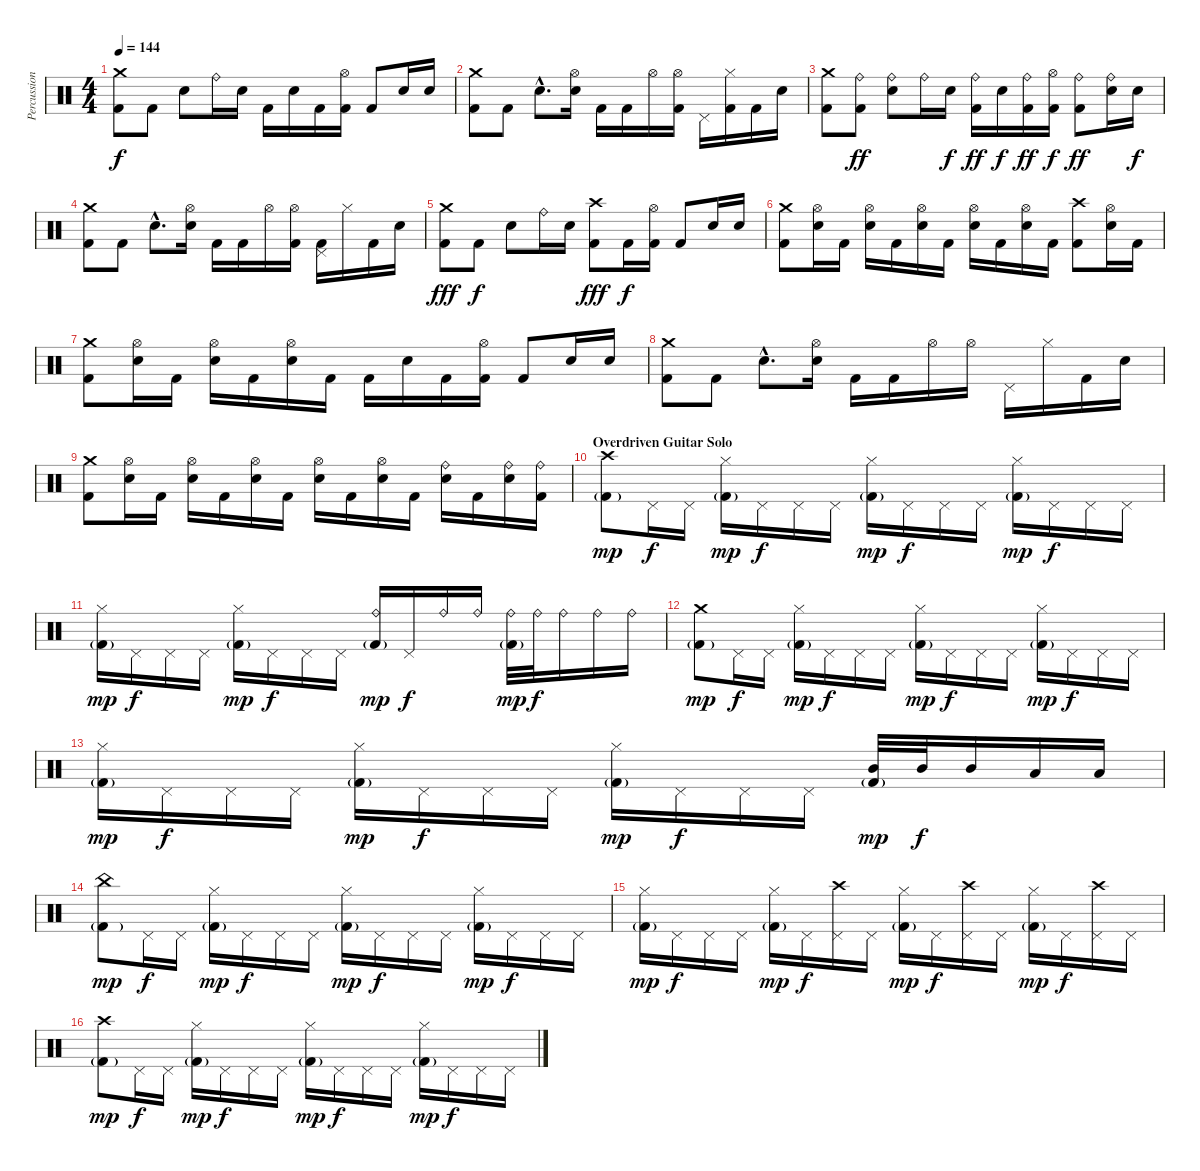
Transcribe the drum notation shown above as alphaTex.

\track ("Percussion" "Percussion") {instrument percussion}
\staff {score}
\articulation defaults
\ts (4 4)
\tempo 144
\clef neutral
\ks c
("Crash medium (hit)" "Kick (hit) 2").8{dy f} "Kick (hit) 2".8 "Electric Snare (hit)".8 "Ride (bell)".16 "Electric Snare (hit)".16 "Kick (hit) 2".16 "Electric Snare (hit)".16 "Kick (hit) 2".16 ("Hi-Hat (open)" "Kick (hit) 2").16 "Kick (hit) 2".8 "Electric Snare (hit)".16 "Electric Snare (hit)".16 |
("Crash medium (hit)" "Kick (hit) 2").8 "Kick (hit) 2".8 "Electric Snare (hit)"{hac}.8{d} ("Hi-Hat (open)" "Electric Snare (hit)").16 "Kick (hit) 2".16 "Kick (hit) 2".16 "Hi-Hat (open)".16 ("Hi-Hat (open)" "Kick (hit) 2").16 "Pedal Hi-Hat (hit)".16 ("Hi-Hat (closed)" "Kick (hit) 2").16 "Kick (hit) 2".16 "Electric Snare (hit)".16 |
("Crash medium (hit)" "Kick (hit) 2").8 ("Ride (bell)" "Kick (hit) 2").8{dy ff} ("Ride (bell)" "Electric Snare (hit)").8 "Ride (bell)".16 "Electric Snare (hit)".16{dy f} ("Ride (bell)" "Kick (hit) 2").16{dy ff} "Electric Snare (hit)".16{dy f} ("Ride (bell)" "Kick (hit) 2").16{dy ff} ("Hi-Hat (open)" "Kick (hit) 2").16{dy f} ("Ride (bell)" "Kick (hit) 2").8{dy ff} ("Ride (bell)" "Electric Snare (hit)").16 "Electric Snare (hit)".16{dy f} |
("Crash medium (hit)" "Kick (hit) 2").8 "Kick (hit) 2".8 "Electric Snare (hit)"{hac}.8{d} ("Hi-Hat (open)" "Electric Snare (hit)").16 "Kick (hit) 2".16 "Kick (hit) 2".16 "Hi-Hat (open)".16 ("Hi-Hat (open)" "Kick (hit) 2").16 ("Pedal Hi-Hat (hit)" "Kick (hit) 2").16 "Hi-Hat (closed)".16 "Kick (hit) 2".16 "Electric Snare (hit)".16 |
("Crash medium (hit)" "Kick (hit) 2").8{dy fff} "Kick (hit) 2".8{dy f} "Electric Snare (hit)".8 "Ride (bell)".16 "Electric Snare (hit)".16 ("Crash high (hit)" "Kick (hit) 2").8{dy fff} "Kick (hit) 2".16{dy f} ("Hi-Hat (open)" "Kick (hit) 2").16 "Kick (hit) 2".8 "Electric Snare (hit)".16 "Electric Snare (hit)".16 |
("Crash medium (hit)" "Kick (hit) 2").8 ("Hi-Hat (open)" "Electric Snare (hit)").16 "Kick (hit) 2".16 ("Hi-Hat (open)" "Electric Snare (hit)").16 "Kick (hit) 2".16 ("Hi-Hat (open)" "Electric Snare (hit)").16 "Kick (hit) 2".16 ("Hi-Hat (open)" "Electric Snare (hit)").16 "Kick (hit) 2".16 ("Hi-Hat (open)" "Electric Snare (hit)").16 "Kick (hit) 2".16 ("Crash high (hit)" "Kick (hit) 2").8 ("Hi-Hat (open)" "Electric Snare (hit)").16 "Kick (hit) 2".16 |
("Crash medium (hit)" "Kick (hit) 2").8 ("Hi-Hat (open)" "Electric Snare (hit)").16 "Kick (hit) 2".16 ("Hi-Hat (open)" "Electric Snare (hit)").16 "Kick (hit) 2".16 ("Hi-Hat (open)" "Electric Snare (hit)").16 "Kick (hit) 2".16 "Kick (hit) 2".16 "Electric Snare (hit)".16 "Kick (hit) 2".16 ("Hi-Hat (open)" "Kick (hit) 2").16 "Kick (hit) 2".8 "Electric Snare (hit)".16 "Electric Snare (hit)".16 |
("Crash medium (hit)" "Kick (hit) 2").8 "Kick (hit) 2".8 "Electric Snare (hit)"{hac}.8{d} ("Hi-Hat (open)" "Electric Snare (hit)").16 "Kick (hit) 2".16 "Kick (hit) 2".16 "Hi-Hat (open)".16 "Hi-Hat (open)".16 "Pedal Hi-Hat (hit)".16 "Hi-Hat (closed)".16 "Kick (hit) 2".16 "Electric Snare (hit)".16 |
("Crash medium (hit)" "Kick (hit) 2").8 ("Hi-Hat (open)" "Electric Snare (hit)").16 "Kick (hit) 2".16 ("Hi-Hat (open)" "Electric Snare (hit)").16 "Kick (hit) 2".16 ("Hi-Hat (open)" "Electric Snare (hit)").16 "Kick (hit) 2".16 ("Hi-Hat (open)" "Electric Snare (hit)").16 "Kick (hit) 2".16 ("Hi-Hat (open)" "Electric Snare (hit)").16 "Kick (hit) 2".16 ("Ride (bell)" "Electric Snare (hit)").16 "Kick (hit) 2".16 ("Ride (bell)" "Electric Snare (hit)").16 ("Ride (bell)" "Kick (hit) 2").16 |
\section ("" "Overdriven Guitar Solo")
("Crash high (hit)" "Kick (hit) 2"{g}).8{dy mp} "Pedal Hi-Hat (hit)".16{dy f} "Pedal Hi-Hat (hit)".16 ("Hi-Hat (closed)" "Kick (hit) 2"{g}).16{dy mp} "Pedal Hi-Hat (hit)".16{dy f} "Pedal Hi-Hat (hit)".16 "Pedal Hi-Hat (hit)".16 ("Hi-Hat (closed)" "Kick (hit) 2"{g}).16{dy mp} "Pedal Hi-Hat (hit)".16{dy f} "Pedal Hi-Hat (hit)".16 "Pedal Hi-Hat (hit)".16 ("Hi-Hat (closed)" "Kick (hit) 2"{g}).16{dy mp} "Pedal Hi-Hat (hit)".16{dy f} "Pedal Hi-Hat (hit)".16 "Pedal Hi-Hat (hit)".16 |
("Hi-Hat (closed)" "Kick (hit) 2"{g}).16{dy mp} "Pedal Hi-Hat (hit)".16{dy f} "Pedal Hi-Hat (hit)".16 "Pedal Hi-Hat (hit)".16 ("Hi-Hat (closed)" "Kick (hit) 2"{g}).16{dy mp} "Pedal Hi-Hat (hit)".16{dy f} "Pedal Hi-Hat (hit)".16 "Pedal Hi-Hat (hit)".16 ("Ride (bell)" "Kick (hit) 2"{g}).16{dy mp} "Pedal Hi-Hat (hit)".16{dy f} "Ride (bell)".16 "Ride (bell)".16 ("Ride (bell)" "Kick (hit) 2"{g}).32{dy mp} "Ride (bell)".32{dy f} "Ride (bell)".16 "Ride (bell)".16 "Ride (bell)".16 |
("Crash medium (hit)" "Kick (hit) 2"{g}).8{dy mp} "Pedal Hi-Hat (hit)".16{dy f} "Pedal Hi-Hat (hit)".16 ("Hi-Hat (closed)" "Kick (hit) 2"{g}).16{dy mp} "Pedal Hi-Hat (hit)".16{dy f} "Pedal Hi-Hat (hit)".16 "Pedal Hi-Hat (hit)".16 ("Hi-Hat (closed)" "Kick (hit) 2"{g}).16{dy mp} "Pedal Hi-Hat (hit)".16{dy f} "Pedal Hi-Hat (hit)".16 "Pedal Hi-Hat (hit)".16 ("Hi-Hat (closed)" "Kick (hit) 2"{g}).16{dy mp} "Pedal Hi-Hat (hit)".16{dy f} "Pedal Hi-Hat (hit)".16 "Pedal Hi-Hat (hit)".16 |
("Hi-Hat (closed)" "Kick (hit) 2"{g}).16{dy mp} "Pedal Hi-Hat (hit)".16{dy f} "Pedal Hi-Hat (hit)".16 "Pedal Hi-Hat (hit)".16 ("Hi-Hat (closed)" "Kick (hit) 2"{g}).16{dy mp} "Pedal Hi-Hat (hit)".16{dy f} "Pedal Hi-Hat (hit)".16 "Pedal Hi-Hat (hit)".16 ("Hi-Hat (closed)" "Kick (hit) 2"{g}).16{dy mp} "Pedal Hi-Hat (hit)".16{dy f} "Pedal Hi-Hat (hit)".16 "Pedal Hi-Hat (hit)".16 ("Mid Tom (hit)" "Kick (hit) 2"{g}).32{dy mp} "Mid Tom (hit)".32{dy f} "Mid Tom (hit)".16 "Low Tom (hit)".16 "Low Tom (hit)".16 |
("China (hit)" "Kick (hit) 2"{g}).8{dy mp} "Pedal Hi-Hat (hit)".16{dy f} "Pedal Hi-Hat (hit)".16 ("Hi-Hat (closed)" "Kick (hit) 2"{g}).16{dy mp} "Pedal Hi-Hat (hit)".16{dy f} "Pedal Hi-Hat (hit)".16 "Pedal Hi-Hat (hit)".16 ("Hi-Hat (closed)" "Kick (hit) 2"{g}).16{dy mp} "Pedal Hi-Hat (hit)".16{dy f} "Pedal Hi-Hat (hit)".16 "Pedal Hi-Hat (hit)".16 ("Hi-Hat (closed)" "Kick (hit) 2"{g}).16{dy mp} "Pedal Hi-Hat (hit)".16{dy f} "Pedal Hi-Hat (hit)".16 "Pedal Hi-Hat (hit)".16 |
("Hi-Hat (closed)" "Kick (hit) 2"{g}).16{dy mp} "Pedal Hi-Hat (hit)".16{dy f} "Pedal Hi-Hat (hit)".16 "Pedal Hi-Hat (hit)".16 ("Hi-Hat (closed)" "Kick (hit) 2"{g}).16{dy mp} "Pedal Hi-Hat (hit)".16{dy f} ("Crash high (hit)" "Pedal Hi-Hat (hit)").16 "Pedal Hi-Hat (hit)".16 ("Hi-Hat (closed)" "Kick (hit) 2"{g}).16{dy mp} "Pedal Hi-Hat (hit)".16{dy f} ("Crash high (hit)" "Pedal Hi-Hat (hit)").16 "Pedal Hi-Hat (hit)".16 ("Hi-Hat (closed)" "Kick (hit) 2"{g}).16{dy mp} "Pedal Hi-Hat (hit)".16{dy f} ("Crash high (hit)" "Pedal Hi-Hat (hit)").16 "Pedal Hi-Hat (hit)".16 |
("Crash high (hit)" "Kick (hit) 2"{g}).8{dy mp} "Pedal Hi-Hat (hit)".16{dy f} "Pedal Hi-Hat (hit)".16 ("Hi-Hat (closed)" "Kick (hit) 2"{g}).16{dy mp} "Pedal Hi-Hat (hit)".16{dy f} "Pedal Hi-Hat (hit)".16 "Pedal Hi-Hat (hit)".16 ("Hi-Hat (closed)" "Kick (hit) 2"{g}).16{dy mp} "Pedal Hi-Hat (hit)".16{dy f} "Pedal Hi-Hat (hit)".16 "Pedal Hi-Hat (hit)".16 ("Hi-Hat (closed)" "Kick (hit) 2"{g}).16{dy mp} "Pedal Hi-Hat (hit)".16{dy f} "Pedal Hi-Hat (hit)".16 "Pedal Hi-Hat (hit)".16
